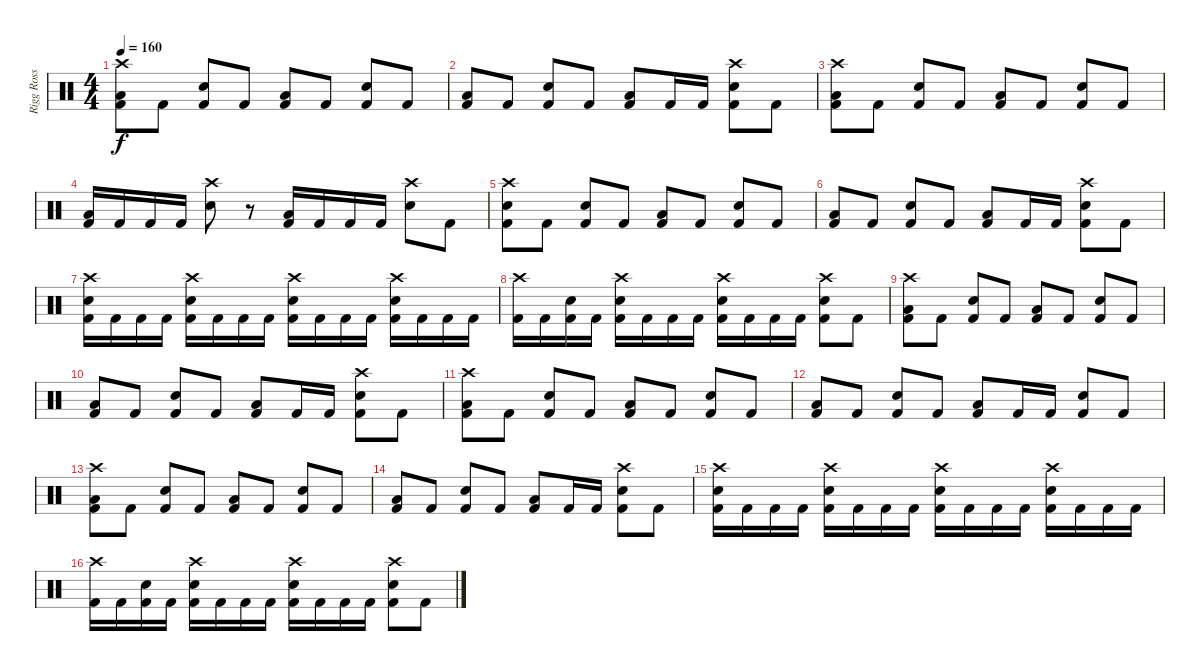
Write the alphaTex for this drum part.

\track ("Rigg Ross" "Rigg Ross") {instrument percussion}
\staff {score}
\articulation defaults
\ts (4 4)
\tempo 160
\clef neutral
\ks c
("Crash high (hit)" "Low Tom (hit)" "Kick (hit) 2").8{dy f} "Kick (hit) 2".8 ("Electric Snare (hit)" "Kick (hit) 2").8 "Kick (hit) 2".8 ("Low Tom (hit)" "Kick (hit) 2").8 "Kick (hit) 2".8 ("Electric Snare (hit)" "Kick (hit) 2").8 "Kick (hit) 2".8 |
("Low Tom (hit)" "Kick (hit) 2").8 "Kick (hit) 2".8 ("Electric Snare (hit)" "Kick (hit) 2").8 "Kick (hit) 2".8 ("Low Tom (hit)" "Kick (hit) 2").8 "Kick (hit) 2".16 "Kick (hit) 2".16 ("Crash high (hit)" "Electric Snare (hit)" "Kick (hit) 2").8 "Kick (hit) 2".8 |
("Crash high (hit)" "Low Tom (hit)" "Kick (hit) 2").8 "Kick (hit) 2".8 ("Electric Snare (hit)" "Kick (hit) 2").8 "Kick (hit) 2".8 ("Low Tom (hit)" "Kick (hit) 2").8 "Kick (hit) 2".8 ("Electric Snare (hit)" "Kick (hit) 2").8 "Kick (hit) 2".8 |
("Low Tom (hit)" "Kick (hit) 2").16 "Kick (hit) 2".16 "Kick (hit) 2".16 "Kick (hit) 2".16 ("Crash high (hit)" "Electric Snare (hit)").8 r.8 ("Low Tom (hit)" "Kick (hit) 2").16 "Kick (hit) 2".16 "Kick (hit) 2".16 "Kick (hit) 2".16 ("Crash high (hit)" "Electric Snare (hit)").8 "Kick (hit) 2".8 |
("Crash high (hit)" "Electric Snare (hit)" "Kick (hit) 2").8 "Kick (hit) 2".8 ("Electric Snare (hit)" "Kick (hit) 2").8 "Kick (hit) 2".8 ("Low Tom (hit)" "Kick (hit) 2").8 "Kick (hit) 2".8 ("Electric Snare (hit)" "Kick (hit) 2").8 "Kick (hit) 2".8 |
("Low Tom (hit)" "Kick (hit) 2").8 "Kick (hit) 2".8 ("Electric Snare (hit)" "Kick (hit) 2").8 "Kick (hit) 2".8 ("Low Tom (hit)" "Kick (hit) 2").8 "Kick (hit) 2".16 "Kick (hit) 2".16 ("Crash high (hit)" "Electric Snare (hit)" "Kick (hit) 2").8 "Kick (hit) 2".8 |
("Crash high (hit)" "Electric Snare (hit)" "Kick (hit) 2").16 "Kick (hit) 2".16 "Kick (hit) 2".16 "Kick (hit) 2".16 ("Crash high (hit)" "Electric Snare (hit)" "Kick (hit) 2").16 "Kick (hit) 2".16 "Kick (hit) 2".16 "Kick (hit) 2".16 ("Crash high (hit)" "Electric Snare (hit)" "Kick (hit) 2").16 "Kick (hit) 2".16 "Kick (hit) 2".16 "Kick (hit) 2".16 ("Crash high (hit)" "Electric Snare (hit)" "Kick (hit) 2").16 "Kick (hit) 2".16 "Kick (hit) 2".16 "Kick (hit) 2".16 |
("Crash high (hit)" "Kick (hit) 2").16 "Kick (hit) 2".16 ("Electric Snare (hit)" "Kick (hit) 2").16 "Kick (hit) 2".16 ("Crash high (hit)" "Electric Snare (hit)" "Kick (hit) 2").16 "Kick (hit) 2".16 "Kick (hit) 2".16 "Kick (hit) 2".16 ("Crash high (hit)" "Electric Snare (hit)" "Kick (hit) 2").16 "Kick (hit) 2".16 "Kick (hit) 2".16 "Kick (hit) 2".16 ("Crash high (hit)" "Electric Snare (hit)" "Kick (hit) 2").8 "Kick (hit) 2".8 |
("Crash high (hit)" "Low Tom (hit)" "Kick (hit) 2").8 "Kick (hit) 2".8 ("Electric Snare (hit)" "Kick (hit) 2").8 "Kick (hit) 2".8 ("Low Tom (hit)" "Kick (hit) 2").8 "Kick (hit) 2".8 ("Electric Snare (hit)" "Kick (hit) 2").8 "Kick (hit) 2".8 |
("Low Tom (hit)" "Kick (hit) 2").8 "Kick (hit) 2".8 ("Electric Snare (hit)" "Kick (hit) 2").8 "Kick (hit) 2".8 ("Low Tom (hit)" "Kick (hit) 2").8 "Kick (hit) 2".16 "Kick (hit) 2".16 ("Crash high (hit)" "Electric Snare (hit)" "Kick (hit) 2").8 "Kick (hit) 2".8 |
("Crash high (hit)" "Low Tom (hit)" "Kick (hit) 2").8 "Kick (hit) 2".8 ("Electric Snare (hit)" "Kick (hit) 2").8 "Kick (hit) 2".8 ("Low Tom (hit)" "Kick (hit) 2").8 "Kick (hit) 2".8 ("Electric Snare (hit)" "Kick (hit) 2").8 "Kick (hit) 2".8 |
("Low Tom (hit)" "Kick (hit) 2").8 "Kick (hit) 2".8 ("Electric Snare (hit)" "Kick (hit) 2").8 "Kick (hit) 2".8 ("Low Tom (hit)" "Kick (hit) 2").8 "Kick (hit) 2".16 "Kick (hit) 2".16 ("Electric Snare (hit)" "Kick (hit) 2").8 "Kick (hit) 2".8 |
("Crash high (hit)" "Low Tom (hit)" "Kick (hit) 2").8 "Kick (hit) 2".8 ("Electric Snare (hit)" "Kick (hit) 2").8 "Kick (hit) 2".8 ("Low Tom (hit)" "Kick (hit) 2").8 "Kick (hit) 2".8 ("Electric Snare (hit)" "Kick (hit) 2").8 "Kick (hit) 2".8 |
("Low Tom (hit)" "Kick (hit) 2").8 "Kick (hit) 2".8 ("Electric Snare (hit)" "Kick (hit) 2").8 "Kick (hit) 2".8 ("Low Tom (hit)" "Kick (hit) 2").8 "Kick (hit) 2".16 "Kick (hit) 2".16 ("Crash high (hit)" "Electric Snare (hit)" "Kick (hit) 2").8 "Kick (hit) 2".8 |
("Crash high (hit)" "Electric Snare (hit)" "Kick (hit) 2").16 "Kick (hit) 2".16 "Kick (hit) 2".16 "Kick (hit) 2".16 ("Crash high (hit)" "Electric Snare (hit)" "Kick (hit) 2").16 "Kick (hit) 2".16 "Kick (hit) 2".16 "Kick (hit) 2".16 ("Crash high (hit)" "Electric Snare (hit)" "Kick (hit) 2").16 "Kick (hit) 2".16 "Kick (hit) 2".16 "Kick (hit) 2".16 ("Crash high (hit)" "Electric Snare (hit)" "Kick (hit) 2").16 "Kick (hit) 2".16 "Kick (hit) 2".16 "Kick (hit) 2".16 |
("Crash high (hit)" "Kick (hit) 2").16 "Kick (hit) 2".16 ("Electric Snare (hit)" "Kick (hit) 2").16 "Kick (hit) 2".16 ("Crash high (hit)" "Electric Snare (hit)" "Kick (hit) 2").16 "Kick (hit) 2".16 "Kick (hit) 2".16 "Kick (hit) 2".16 ("Crash high (hit)" "Electric Snare (hit)" "Kick (hit) 2").16 "Kick (hit) 2".16 "Kick (hit) 2".16 "Kick (hit) 2".16 ("Crash high (hit)" "Electric Snare (hit)" "Kick (hit) 2").8 "Kick (hit) 2".8
